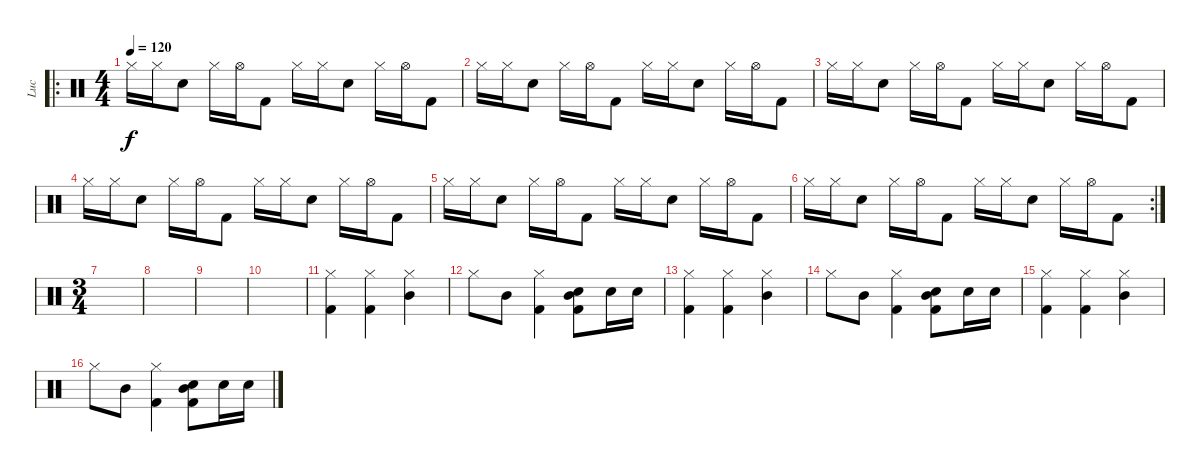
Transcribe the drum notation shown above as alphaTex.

\track ("Luc" "Luc") {instrument percussion}
\staff {score}
\articulation defaults
\ro
\ts (4 4)
\tempo 120
\clef neutral
\ks c "Hi-Hat (closed)".16{dy f} "Hi-Hat (closed)".16 "Snare (hit) 2".8 "Hi-Hat (closed)".16 "Hi-Hat (open)".16 "Kick (hit) 2".8 "Hi-Hat (closed)".16 "Hi-Hat (closed)".16 "Snare (hit) 2".8 "Hi-Hat (closed)".16 "Hi-Hat (open)".16 "Kick (hit) 2".8
|
"Hi-Hat (closed)".16 "Hi-Hat (closed)".16 "Snare (hit) 2".8 "Hi-Hat (closed)".16 "Hi-Hat (open)".16 "Kick (hit) 2".8 "Hi-Hat (closed)".16 "Hi-Hat (closed)".16 "Snare (hit) 2".8 "Hi-Hat (closed)".16 "Hi-Hat (open)".16 "Kick (hit) 2".8 |
"Hi-Hat (closed)".16 "Hi-Hat (closed)".16 "Snare (hit) 2".8 "Hi-Hat (closed)".16 "Hi-Hat (open)".16 "Kick (hit) 2".8 "Hi-Hat (closed)".16 "Hi-Hat (closed)".16 "Snare (hit) 2".8 "Hi-Hat (closed)".16 "Hi-Hat (open)".16 "Kick (hit) 2".8 |
"Hi-Hat (closed)".16 "Hi-Hat (closed)".16 "Snare (hit) 2".8 "Hi-Hat (closed)".16 "Hi-Hat (open)".16 "Kick (hit) 2".8 "Hi-Hat (closed)".16 "Hi-Hat (closed)".16 "Snare (hit) 2".8 "Hi-Hat (closed)".16 "Hi-Hat (open)".16 "Kick (hit) 2".8 |
"Hi-Hat (closed)".16 "Hi-Hat (closed)".16 "Snare (hit) 2".8 "Hi-Hat (closed)".16 "Hi-Hat (open)".16 "Kick (hit) 2".8 "Hi-Hat (closed)".16 "Hi-Hat (closed)".16 "Snare (hit) 2".8 "Hi-Hat (closed)".16 "Hi-Hat (open)".16 "Kick (hit) 2".8 |
\rc 2 "Hi-Hat (closed)".16 "Hi-Hat (closed)".16 "Snare (hit) 2".8 "Hi-Hat (closed)".16 "Hi-Hat (open)".16 "Kick (hit) 2".8 "Hi-Hat (closed)".16 "Hi-Hat (closed)".16 "Snare (hit) 2".8 "Hi-Hat (closed)".16 "Hi-Hat (open)".16 "Kick (hit) 2".8
|
\ts (3 4)
|
|
|
|
("Hi-Hat (closed)" "Kick (hit) 2").4 ("Hi-Hat (closed)" "Kick (hit) 2").4 ("Hi-Hat (closed)" "Mid Tom (hit)").4 |
"Hi-Hat (closed)".8 "Mid Tom (hit)".8 ("Hi-Hat (closed)" "Kick (hit) 2").4 ("Mid Tom (hit)" "Snare (hit) 2" "Kick (hit) 2").8 "Snare (hit) 2".16 "Snare (hit) 2".16 |
("Hi-Hat (closed)" "Kick (hit) 2").4 ("Hi-Hat (closed)" "Kick (hit) 2").4 ("Hi-Hat (closed)" "Mid Tom (hit)").4 |
"Hi-Hat (closed)".8 "Mid Tom (hit)".8 ("Hi-Hat (closed)" "Kick (hit) 2").4 ("Mid Tom (hit)" "Snare (hit) 2" "Kick (hit) 2").8 "Snare (hit) 2".16 "Snare (hit) 2".16 |
("Hi-Hat (closed)" "Kick (hit) 2").4 ("Hi-Hat (closed)" "Kick (hit) 2").4 ("Hi-Hat (closed)" "Mid Tom (hit)").4 |
"Hi-Hat (closed)".8 "Mid Tom (hit)".8 ("Hi-Hat (closed)" "Kick (hit) 2").4 ("Mid Tom (hit)" "Snare (hit) 2" "Kick (hit) 2").8 "Snare (hit) 2".16 "Snare (hit) 2".16
